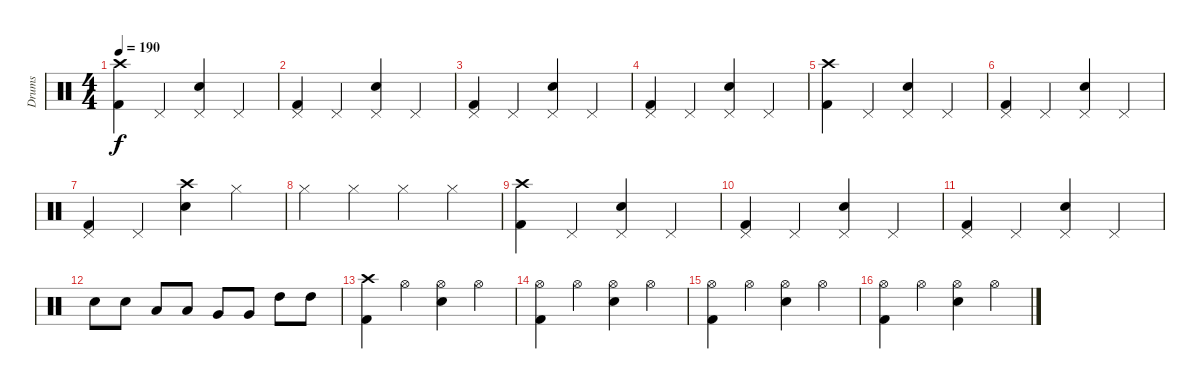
\track ("Drums" "Drums") {instrument percussion}
\staff {score}
\articulation defaults
\ts (4 4)
\tempo 190
\clef neutral
\ks c
("Crash high (hit)" "Kick (hit) 2").4{dy f} "Pedal Hi-Hat (hit)".4 ("Pedal Hi-Hat (hit)" "Electric Snare (hit)").4 "Pedal Hi-Hat (hit)".4 |
("Pedal Hi-Hat (hit)" "Kick (hit) 2").4 "Pedal Hi-Hat (hit)".4 ("Pedal Hi-Hat (hit)" "Electric Snare (hit)").4 "Pedal Hi-Hat (hit)".4 |
("Pedal Hi-Hat (hit)" "Kick (hit) 2").4 "Pedal Hi-Hat (hit)".4 ("Pedal Hi-Hat (hit)" "Electric Snare (hit)").4 "Pedal Hi-Hat (hit)".4 |
("Pedal Hi-Hat (hit)" "Kick (hit) 2").4 "Pedal Hi-Hat (hit)".4 ("Pedal Hi-Hat (hit)" "Electric Snare (hit)").4 "Pedal Hi-Hat (hit)".4 |
("Crash high (hit)" "Kick (hit) 2").4 "Pedal Hi-Hat (hit)".4 ("Pedal Hi-Hat (hit)" "Electric Snare (hit)").4 "Pedal Hi-Hat (hit)".4 |
("Pedal Hi-Hat (hit)" "Kick (hit) 2").4 "Pedal Hi-Hat (hit)".4 ("Pedal Hi-Hat (hit)" "Electric Snare (hit)").4 "Pedal Hi-Hat (hit)".4 |
("Pedal Hi-Hat (hit)" "Kick (hit) 2").4 "Pedal Hi-Hat (hit)".4 ("Crash high (hit)" "Electric Snare (hit)").4 "Hi-Hat (closed)".4 |
"Hi-Hat (closed)".4 "Hi-Hat (closed)".4 "Hi-Hat (closed)".4 "Hi-Hat (closed)".4 |
("Crash high (hit)" "Kick (hit) 2").4 "Pedal Hi-Hat (hit)".4 ("Pedal Hi-Hat (hit)" "Electric Snare (hit)").4 "Pedal Hi-Hat (hit)".4 |
("Pedal Hi-Hat (hit)" "Kick (hit) 2").4 "Pedal Hi-Hat (hit)".4 ("Pedal Hi-Hat (hit)" "Electric Snare (hit)").4 "Pedal Hi-Hat (hit)".4 |
("Pedal Hi-Hat (hit)" "Kick (hit) 2").4 "Pedal Hi-Hat (hit)".4 ("Pedal Hi-Hat (hit)" "Electric Snare (hit)").4 "Pedal Hi-Hat (hit)".4 |
"Electric Snare (hit)".8 "Electric Snare (hit)".8 "Low Tom (hit)".8 "Low Tom (hit)".8 "Very Low Tom (hit)".8 "Very Low Tom (hit)".8 "High Tom (hit)".8 "High Tom (hit)".8 |
("Crash high (hit)" "Kick (hit) 2").4 "Hi-Hat (open)".4 ("Hi-Hat (open)" "Electric Snare (hit)").4 "Hi-Hat (open)".4 |
("Hi-Hat (open)" "Kick (hit) 2").4 "Hi-Hat (open)".4 ("Hi-Hat (open)" "Electric Snare (hit)").4 "Hi-Hat (open)".4 |
("Hi-Hat (open)" "Kick (hit) 2").4 "Hi-Hat (open)".4 ("Hi-Hat (open)" "Electric Snare (hit)").4 "Hi-Hat (open)".4 |
("Hi-Hat (open)" "Kick (hit) 2").4 "Hi-Hat (open)".4 ("Hi-Hat (open)" "Electric Snare (hit)").4 "Hi-Hat (open)".4
